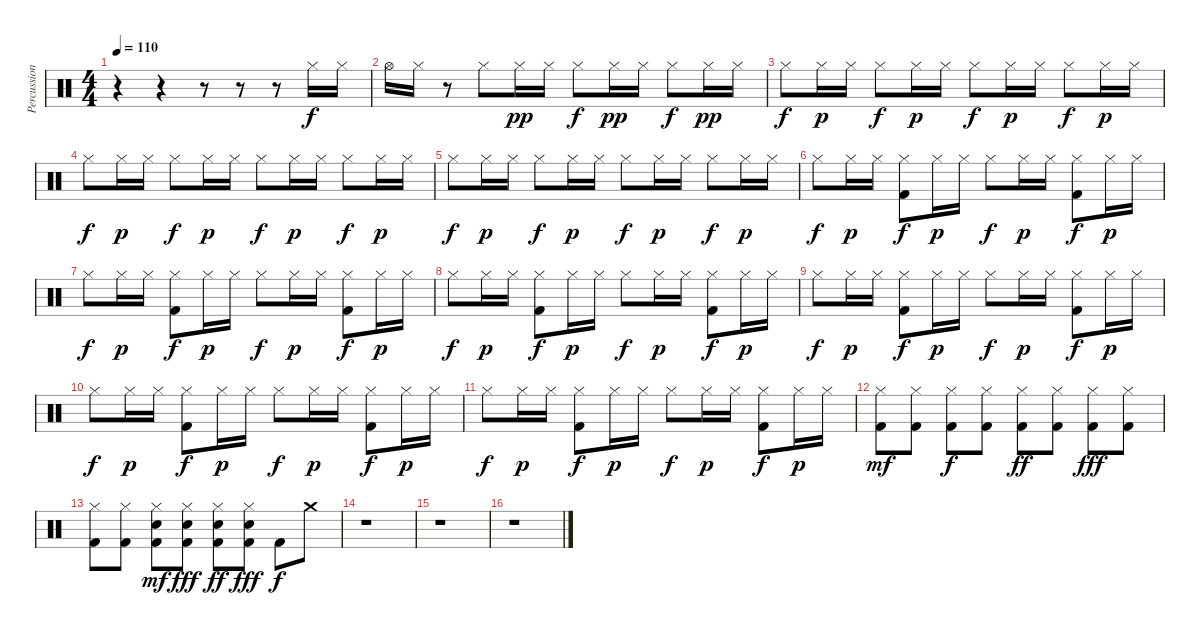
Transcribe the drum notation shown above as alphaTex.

\track ("Percussion" "Percussion") {instrument percussion}
\staff {score}
\articulation defaults
\ts (4 4)
\tempo 110
\clef neutral
\ks c
r.4{dy f} r.4 r.8 r.8 r.8 "Hi-Hat (closed)".16 "Hi-Hat (closed)".16 |
"Hi-Hat (open)".16 "Hi-Hat (closed)".16 r.8 "Hi-Hat (closed)".8 "Hi-Hat (closed)".16{dy pp} "Hi-Hat (closed)".16 "Hi-Hat (closed)".8{dy f} "Hi-Hat (closed)".16{dy pp} "Hi-Hat (closed)".16 "Hi-Hat (closed)".8{dy f} "Hi-Hat (closed)".16{dy pp} "Hi-Hat (closed)".16 |
"Hi-Hat (closed)".8{dy f} "Hi-Hat (closed)".16{dy p} "Hi-Hat (closed)".16 "Hi-Hat (closed)".8{dy f} "Hi-Hat (closed)".16{dy p} "Hi-Hat (closed)".16 "Hi-Hat (closed)".8{dy f} "Hi-Hat (closed)".16{dy p} "Hi-Hat (closed)".16 "Hi-Hat (closed)".8{dy f} "Hi-Hat (closed)".16{dy p} "Hi-Hat (closed)".16 |
"Hi-Hat (closed)".8{dy f} "Hi-Hat (closed)".16{dy p} "Hi-Hat (closed)".16 "Hi-Hat (closed)".8{dy f} "Hi-Hat (closed)".16{dy p} "Hi-Hat (closed)".16 "Hi-Hat (closed)".8{dy f} "Hi-Hat (closed)".16{dy p} "Hi-Hat (closed)".16 "Hi-Hat (closed)".8{dy f} "Hi-Hat (closed)".16{dy p} "Hi-Hat (closed)".16 |
"Hi-Hat (closed)".8{dy f} "Hi-Hat (closed)".16{dy p} "Hi-Hat (closed)".16 "Hi-Hat (closed)".8{dy f} "Hi-Hat (closed)".16{dy p} "Hi-Hat (closed)".16 "Hi-Hat (closed)".8{dy f} "Hi-Hat (closed)".16{dy p} "Hi-Hat (closed)".16 "Hi-Hat (closed)".8{dy f} "Hi-Hat (closed)".16{dy p} "Hi-Hat (closed)".16 |
"Hi-Hat (closed)".8{dy f} "Hi-Hat (closed)".16{dy p} "Hi-Hat (closed)".16 ("Hi-Hat (closed)" "Kick (hit) 2").8{dy f} "Hi-Hat (closed)".16{dy p} "Hi-Hat (closed)".16 "Hi-Hat (closed)".8{dy f} "Hi-Hat (closed)".16{dy p} "Hi-Hat (closed)".16 ("Hi-Hat (closed)" "Kick (hit) 2").8{dy f} "Hi-Hat (closed)".16{dy p} "Hi-Hat (closed)".16 |
"Hi-Hat (closed)".8{dy f} "Hi-Hat (closed)".16{dy p} "Hi-Hat (closed)".16 ("Hi-Hat (closed)" "Kick (hit) 2").8{dy f} "Hi-Hat (closed)".16{dy p} "Hi-Hat (closed)".16 "Hi-Hat (closed)".8{dy f} "Hi-Hat (closed)".16{dy p} "Hi-Hat (closed)".16 ("Hi-Hat (closed)" "Kick (hit) 2").8{dy f} "Hi-Hat (closed)".16{dy p} "Hi-Hat (closed)".16 |
"Hi-Hat (closed)".8{dy f} "Hi-Hat (closed)".16{dy p} "Hi-Hat (closed)".16 ("Hi-Hat (closed)" "Kick (hit) 2").8{dy f} "Hi-Hat (closed)".16{dy p} "Hi-Hat (closed)".16 "Hi-Hat (closed)".8{dy f} "Hi-Hat (closed)".16{dy p} "Hi-Hat (closed)".16 ("Hi-Hat (closed)" "Kick (hit) 2").8{dy f} "Hi-Hat (closed)".16{dy p} "Hi-Hat (closed)".16 |
"Hi-Hat (closed)".8{dy f} "Hi-Hat (closed)".16{dy p} "Hi-Hat (closed)".16 ("Hi-Hat (closed)" "Kick (hit) 2").8{dy f} "Hi-Hat (closed)".16{dy p} "Hi-Hat (closed)".16 "Hi-Hat (closed)".8{dy f} "Hi-Hat (closed)".16{dy p} "Hi-Hat (closed)".16 ("Hi-Hat (closed)" "Kick (hit) 2").8{dy f} "Hi-Hat (closed)".16{dy p} "Hi-Hat (closed)".16 |
"Hi-Hat (closed)".8{dy f} "Hi-Hat (closed)".16{dy p} "Hi-Hat (closed)".16 ("Hi-Hat (closed)" "Kick (hit) 2").8{dy f} "Hi-Hat (closed)".16{dy p} "Hi-Hat (closed)".16 "Hi-Hat (closed)".8{dy f} "Hi-Hat (closed)".16{dy p} "Hi-Hat (closed)".16 ("Hi-Hat (closed)" "Kick (hit) 2").8{dy f} "Hi-Hat (closed)".16{dy p} "Hi-Hat (closed)".16 |
"Hi-Hat (closed)".8{dy f} "Hi-Hat (closed)".16{dy p} "Hi-Hat (closed)".16 ("Hi-Hat (closed)" "Kick (hit) 2").8{dy f} "Hi-Hat (closed)".16{dy p} "Hi-Hat (closed)".16 "Hi-Hat (closed)".8{dy f} "Hi-Hat (closed)".16{dy p} "Hi-Hat (closed)".16 ("Hi-Hat (closed)" "Kick (hit) 2").8{dy f} "Hi-Hat (closed)".16{dy p} "Hi-Hat (closed)".16 |
("Hi-Hat (closed)" "Kick (hit) 2").8{dy mf} ("Hi-Hat (closed)" "Kick (hit) 2").8 ("Hi-Hat (closed)" "Kick (hit) 2").8{dy f} ("Hi-Hat (closed)" "Kick (hit) 2").8 ("Hi-Hat (closed)" "Kick (hit) 2").8{dy ff} ("Hi-Hat (closed)" "Kick (hit) 2").8 ("Hi-Hat (closed)" "Kick (hit) 2").8{dy fff} ("Hi-Hat (closed)" "Kick (hit) 2").8 |
("Hi-Hat (closed)" "Kick (hit) 2").8 ("Hi-Hat (closed)" "Kick (hit) 2").8 ("Hi-Hat (closed)" "Electric Snare (hit)" "Kick (hit) 2").8{dy mf} ("Hi-Hat (closed)" "Electric Snare (hit)" "Kick (hit) 2").8{dy fff} ("Hi-Hat (closed)" "Electric Snare (hit)" "Kick (hit) 2").8{dy ff} ("Hi-Hat (closed)" "Electric Snare (hit)" "Kick (hit) 2").8{dy fff} "Kick (hit) 2".8{dy f} "Crash medium (hit)".8 |
r.1 |
r.1 |
r.1
